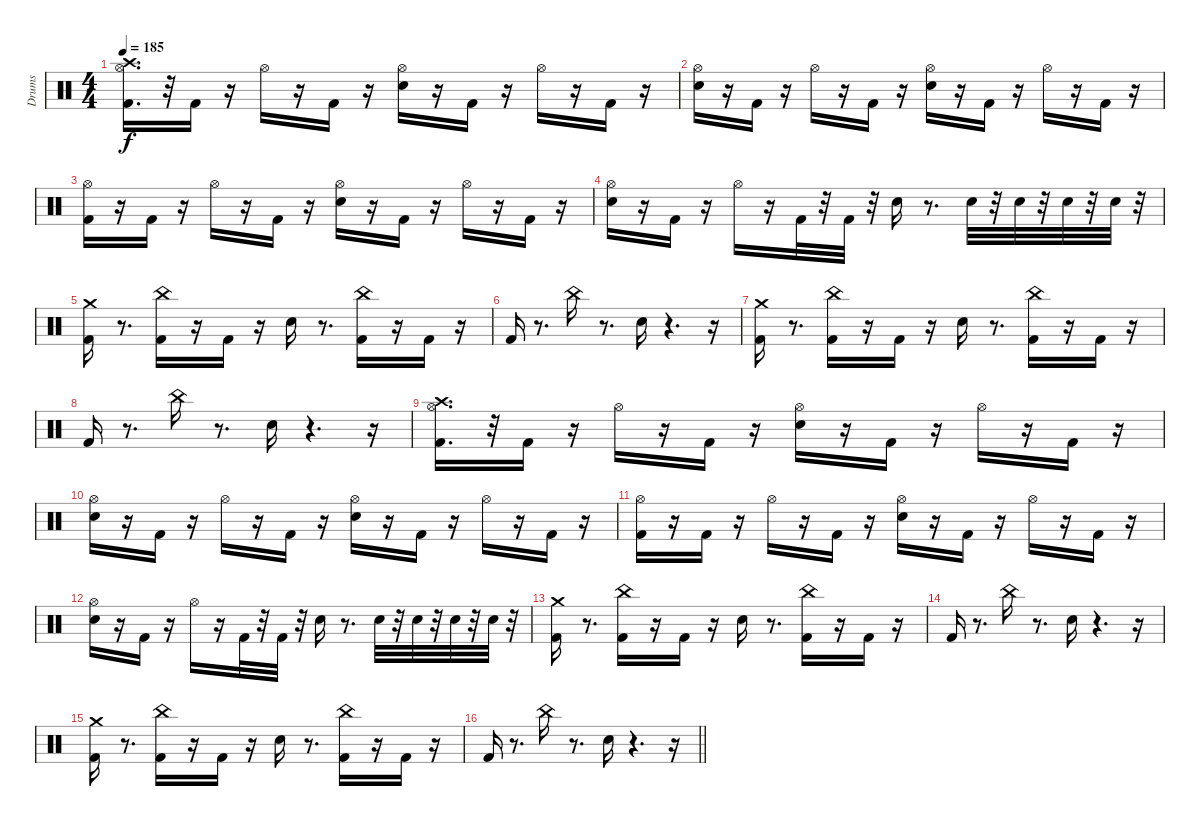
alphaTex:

\track ("Drums" "Drums") {instrument percussion}
\staff {score}
\articulation defaults
\ts (4 4)
\tempo 185
\clef neutral
\ks c
("Crash high (hit)" "Kick (hit) 2" "Hi-Hat (open)").16{d dy f} r.32 "Kick (hit) 2".16 r.16 "Hi-Hat (open)".16 r.16 "Kick (hit) 2".16 r.16 ("Hi-Hat (open)" "Electric Snare (hit)").16 r.16 "Kick (hit) 2".16 r.16 "Hi-Hat (open)".16 r.16 "Kick (hit) 2".16 r.16 |
("Hi-Hat (open)" "Electric Snare (hit)").16 r.16 "Kick (hit) 2".16 r.16 "Hi-Hat (open)".16 r.16 "Kick (hit) 2".16 r.16 ("Electric Snare (hit)" "Hi-Hat (open)").16 r.16 "Kick (hit) 2".16 r.16 "Hi-Hat (open)".16 r.16 "Kick (hit) 2".16 r.16 |
("Kick (hit) 2" "Hi-Hat (open)").16 r.16 "Kick (hit) 2".16 r.16 "Hi-Hat (open)".16 r.16 "Kick (hit) 2".16 r.16 ("Hi-Hat (open)" "Electric Snare (hit)").16 r.16 "Kick (hit) 2".16 r.16 "Hi-Hat (open)".16 r.16 "Kick (hit) 2".16 r.16 |
("Hi-Hat (open)" "Electric Snare (hit)").16 r.16 "Kick (hit) 2".16 r.16 "Hi-Hat (open)".16 r.16 "Kick (hit) 2".32 r.32 "Kick (hit) 2".32 r.32 "Electric Snare (hit)".16 r.8{d} "Electric Snare (hit)".32 r.32 "Electric Snare (hit)".32 r.32 "Electric Snare (hit)".32 r.32 "Electric Snare (hit)".32 r.32 |
("Crash medium (hit)" "Kick (hit) 2").16 r.8{d} ("China (hit)" "Kick (hit) 2").16 r.16 "Kick (hit) 2".16 r.16 "Electric Snare (hit)".16 r.8{d} ("Kick (hit) 2" "China (hit)").16 r.16 "Kick (hit) 2".16 r.16 |
"Kick (hit) 2".16 r.8{d} "China (hit)".16 r.8{d} "Electric Snare (hit)".16 r.4{d} r.16 |
("Kick (hit) 2" "Crash medium (hit)").16 r.8{d} ("China (hit)" "Kick (hit) 2").16 r.16 "Kick (hit) 2".16 r.16 "Electric Snare (hit)".16 r.8{d} ("China (hit)" "Kick (hit) 2").16 r.16 "Kick (hit) 2".16 r.16 |
"Kick (hit) 2".16 r.8{d} "China (hit)".16 r.8{d} "Electric Snare (hit)".16 r.4{d} r.16 |
("Crash high (hit)" "Kick (hit) 2" "Hi-Hat (open)").16{d} r.32 "Kick (hit) 2".16 r.16 "Hi-Hat (open)".16 r.16 "Kick (hit) 2".16 r.16 ("Hi-Hat (open)" "Electric Snare (hit)").16 r.16 "Kick (hit) 2".16 r.16 "Hi-Hat (open)".16 r.16 "Kick (hit) 2".16 r.16 |
("Hi-Hat (open)" "Electric Snare (hit)").16 r.16 "Kick (hit) 2".16 r.16 "Hi-Hat (open)".16 r.16 "Kick (hit) 2".16 r.16 ("Hi-Hat (open)" "Electric Snare (hit)").16 r.16 "Kick (hit) 2".16 r.16 "Hi-Hat (open)".16 r.16 "Kick (hit) 2".16 r.16 |
("Hi-Hat (open)" "Kick (hit) 2").16 r.16 "Kick (hit) 2".16 r.16 "Hi-Hat (open)".16 r.16 "Kick (hit) 2".16 r.16 ("Hi-Hat (open)" "Electric Snare (hit)").16 r.16 "Kick (hit) 2".16 r.16 "Hi-Hat (open)".16 r.16 "Kick (hit) 2".16 r.16 |
("Electric Snare (hit)" "Hi-Hat (open)").16 r.16 "Kick (hit) 2".16 r.16 "Hi-Hat (open)".16 r.16 "Kick (hit) 2".32 r.32 "Kick (hit) 2".32 r.32 "Electric Snare (hit)".16 r.8{d} "Electric Snare (hit)".32 r.32 "Electric Snare (hit)".32 r.32 "Electric Snare (hit)".32 r.32 "Electric Snare (hit)".32 r.32 |
("Crash medium (hit)" "Kick (hit) 2").16 r.8{d} ("Kick (hit) 2" "China (hit)").16 r.16 "Kick (hit) 2".16 r.16 "Electric Snare (hit)".16 r.8{d} ("China (hit)" "Kick (hit) 2").16 r.16 "Kick (hit) 2".16 r.16 |
"Kick (hit) 2".16 r.8{d} "China (hit)".16 r.8{d} "Electric Snare (hit)".16 r.4{d} r.16 |
("Crash medium (hit)" "Kick (hit) 2").16 r.8{d} ("Kick (hit) 2" "China (hit)").16 r.16 "Kick (hit) 2".16 r.16 "Electric Snare (hit)".16 r.8{d} ("China (hit)" "Kick (hit) 2").16 r.16 "Kick (hit) 2".16 r.16 |
\barLineRight lightlight "Kick (hit) 2".16
r.8{d} "China (hit)".16 r.8{d} "Electric Snare (hit)".16 r.4{d} r.16
